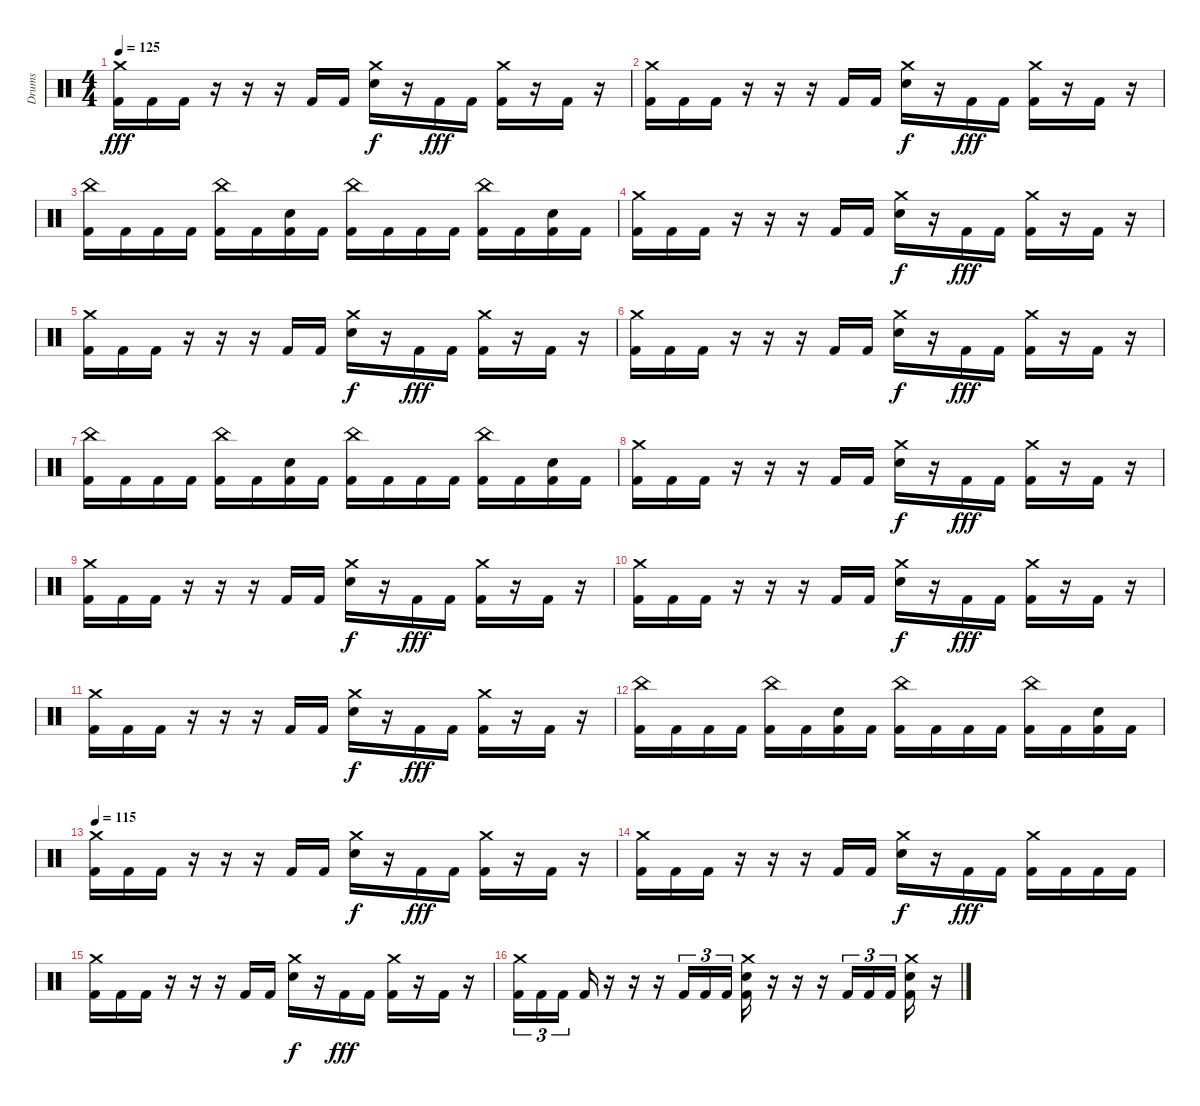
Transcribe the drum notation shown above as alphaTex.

\track ("Drums" "Drums") {instrument percussion}
\staff {score}
\articulation defaults
\ts (4 4)
\tempo 125
\clef neutral
\ks c
("Crash medium (hit)" "Kick (hit) 2").16{dy fff} "Kick (hit) 2".16 "Kick (hit) 2".16 r.16 r.16 r.16 "Kick (hit) 2".16 "Kick (hit) 2".16 ("Crash medium (hit)" "Electric Snare (hit)").16{dy f} r.16 "Kick (hit) 2".16{dy fff} "Kick (hit) 2".16 ("Crash medium (hit)" "Kick (hit) 2").16 r.16 "Kick (hit) 2".16 r.16 |
("Crash medium (hit)" "Kick (hit) 2").16 "Kick (hit) 2".16 "Kick (hit) 2".16 r.16 r.16 r.16 "Kick (hit) 2".16 "Kick (hit) 2".16 ("Crash medium (hit)" "Electric Snare (hit)").16{dy f} r.16 "Kick (hit) 2".16{dy fff} "Kick (hit) 2".16 ("Crash medium (hit)" "Kick (hit) 2").16 r.16 "Kick (hit) 2".16 r.16 |
("China (hit)" "Kick (hit) 2").16 "Kick (hit) 2".16 "Kick (hit) 2".16 "Kick (hit) 2".16 ("China (hit)" "Kick (hit) 2").16 "Kick (hit) 2".16 ("Electric Snare (hit)" "Kick (hit) 2").16 "Kick (hit) 2".16 ("China (hit)" "Kick (hit) 2").16 "Kick (hit) 2".16 "Kick (hit) 2".16 "Kick (hit) 2".16 ("China (hit)" "Kick (hit) 2").16 "Kick (hit) 2".16 ("Electric Snare (hit)" "Kick (hit) 2").16 "Kick (hit) 2".16 |
("Crash medium (hit)" "Kick (hit) 2").16 "Kick (hit) 2".16 "Kick (hit) 2".16 r.16 r.16 r.16 "Kick (hit) 2".16 "Kick (hit) 2".16 ("Crash medium (hit)" "Electric Snare (hit)").16{dy f} r.16 "Kick (hit) 2".16{dy fff} "Kick (hit) 2".16 ("Crash medium (hit)" "Kick (hit) 2").16 r.16 "Kick (hit) 2".16 r.16 |
("Crash medium (hit)" "Kick (hit) 2").16 "Kick (hit) 2".16 "Kick (hit) 2".16 r.16 r.16 r.16 "Kick (hit) 2".16 "Kick (hit) 2".16 ("Crash medium (hit)" "Electric Snare (hit)").16{dy f} r.16 "Kick (hit) 2".16{dy fff} "Kick (hit) 2".16 ("Crash medium (hit)" "Kick (hit) 2").16 r.16 "Kick (hit) 2".16 r.16 |
("Crash medium (hit)" "Kick (hit) 2").16 "Kick (hit) 2".16 "Kick (hit) 2".16 r.16 r.16 r.16 "Kick (hit) 2".16 "Kick (hit) 2".16 ("Crash medium (hit)" "Electric Snare (hit)").16{dy f} r.16 "Kick (hit) 2".16{dy fff} "Kick (hit) 2".16 ("Crash medium (hit)" "Kick (hit) 2").16 r.16 "Kick (hit) 2".16 r.16 |
("China (hit)" "Kick (hit) 2").16 "Kick (hit) 2".16 "Kick (hit) 2".16 "Kick (hit) 2".16 ("China (hit)" "Kick (hit) 2").16 "Kick (hit) 2".16 ("Electric Snare (hit)" "Kick (hit) 2").16 "Kick (hit) 2".16 ("China (hit)" "Kick (hit) 2").16 "Kick (hit) 2".16 "Kick (hit) 2".16 "Kick (hit) 2".16 ("China (hit)" "Kick (hit) 2").16 "Kick (hit) 2".16 ("Electric Snare (hit)" "Kick (hit) 2").16 "Kick (hit) 2".16 |
("Crash medium (hit)" "Kick (hit) 2").16 "Kick (hit) 2".16 "Kick (hit) 2".16 r.16 r.16 r.16 "Kick (hit) 2".16 "Kick (hit) 2".16 ("Crash medium (hit)" "Electric Snare (hit)").16{dy f} r.16 "Kick (hit) 2".16{dy fff} "Kick (hit) 2".16 ("Crash medium (hit)" "Kick (hit) 2").16 r.16 "Kick (hit) 2".16 r.16 |
("Crash medium (hit)" "Kick (hit) 2").16 "Kick (hit) 2".16 "Kick (hit) 2".16 r.16 r.16 r.16 "Kick (hit) 2".16 "Kick (hit) 2".16 ("Crash medium (hit)" "Electric Snare (hit)").16{dy f} r.16 "Kick (hit) 2".16{dy fff} "Kick (hit) 2".16 ("Crash medium (hit)" "Kick (hit) 2").16 r.16 "Kick (hit) 2".16 r.16 |
("Crash medium (hit)" "Kick (hit) 2").16 "Kick (hit) 2".16 "Kick (hit) 2".16 r.16 r.16 r.16 "Kick (hit) 2".16 "Kick (hit) 2".16 ("Crash medium (hit)" "Electric Snare (hit)").16{dy f} r.16 "Kick (hit) 2".16{dy fff} "Kick (hit) 2".16 ("Crash medium (hit)" "Kick (hit) 2").16 r.16 "Kick (hit) 2".16 r.16 |
("Crash medium (hit)" "Kick (hit) 2").16 "Kick (hit) 2".16 "Kick (hit) 2".16 r.16 r.16 r.16 "Kick (hit) 2".16 "Kick (hit) 2".16 ("Crash medium (hit)" "Electric Snare (hit)").16{dy f} r.16 "Kick (hit) 2".16{dy fff} "Kick (hit) 2".16 ("Crash medium (hit)" "Kick (hit) 2").16 r.16 "Kick (hit) 2".16 r.16 |
("China (hit)" "Kick (hit) 2").16 "Kick (hit) 2".16 "Kick (hit) 2".16 "Kick (hit) 2".16 ("China (hit)" "Kick (hit) 2").16 "Kick (hit) 2".16 ("Electric Snare (hit)" "Kick (hit) 2").16 "Kick (hit) 2".16 ("China (hit)" "Kick (hit) 2").16 "Kick (hit) 2".16 "Kick (hit) 2".16 "Kick (hit) 2".16 ("China (hit)" "Kick (hit) 2").16 "Kick (hit) 2".16 ("Electric Snare (hit)" "Kick (hit) 2").16 "Kick (hit) 2".16 |
\tempo 115
("Crash medium (hit)" "Kick (hit) 2").16 "Kick (hit) 2".16 "Kick (hit) 2".16 r.16 r.16 r.16 "Kick (hit) 2".16 "Kick (hit) 2".16 ("Crash medium (hit)" "Electric Snare (hit)").16{dy f} r.16 "Kick (hit) 2".16{dy fff} "Kick (hit) 2".16 ("Crash medium (hit)" "Kick (hit) 2").16 r.16 "Kick (hit) 2".16 r.16 |
("Crash medium (hit)" "Kick (hit) 2").16 "Kick (hit) 2".16 "Kick (hit) 2".16 r.16 r.16 r.16 "Kick (hit) 2".16 "Kick (hit) 2".16 ("Crash medium (hit)" "Electric Snare (hit)").16{dy f} r.16 "Kick (hit) 2".16{dy fff} "Kick (hit) 2".16 ("Crash medium (hit)" "Kick (hit) 2").16 "Kick (hit) 2".16 "Kick (hit) 2".16 "Kick (hit) 2".16 |
("Crash medium (hit)" "Kick (hit) 2").16 "Kick (hit) 2".16 "Kick (hit) 2".16 r.16 r.16 r.16 "Kick (hit) 2".16 "Kick (hit) 2".16 ("Crash medium (hit)" "Electric Snare (hit)").16{dy f} r.16 "Kick (hit) 2".16{dy fff} "Kick (hit) 2".16 ("Crash medium (hit)" "Kick (hit) 2").16 r.16 "Kick (hit) 2".16 r.16 |
("Crash medium (hit)" "Kick (hit) 2").16{tu (3 2)} "Kick (hit) 2".16{tu (3 2)} "Kick (hit) 2".16{tu (3 2) beam splitsecondary} "Kick (hit) 2".16 r.16 r.16 r.16 "Kick (hit) 2".16{tu (3 2)} "Kick (hit) 2".16{tu (3 2)} "Kick (hit) 2".16{tu (3 2)} ("Crash medium (hit)" "Electric Snare (hit)" "Kick (hit) 2").16 r.16 r.16 r.16 "Kick (hit) 2".16{tu (3 2)} "Kick (hit) 2".16{tu (3 2)} "Kick (hit) 2".16{tu (3 2) beam splitsecondary} ("Crash medium (hit)" "Electric Snare (hit)" "Kick (hit) 2").16 r.16
